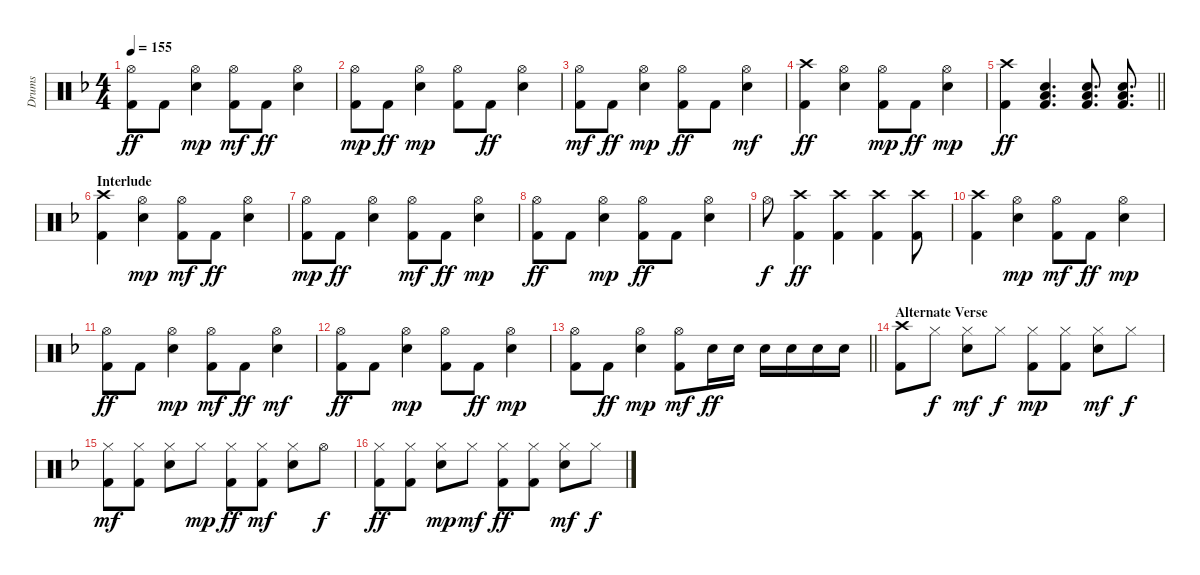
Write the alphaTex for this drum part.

\track ("Drums" "Drums") {instrument percussion}
\staff {score}
\articulation defaults
\ts (4 4)
\tempo 155
\clef neutral
\ks f
("Kick (hit) 2" "Hi-Hat (open)").8{dy ff} "Kick (hit) 2".8 ("Snare (hit) 2" "Hi-Hat (open)").4{dy mp} ("Kick (hit) 2" "Hi-Hat (open)").8{dy mf} "Kick (hit) 2".8{dy ff} ("Snare (hit) 2" "Hi-Hat (open)").4 |
("Kick (hit) 2" "Hi-Hat (open)").8{dy mp} "Kick (hit) 2".8{dy ff} ("Snare (hit) 2" "Hi-Hat (open)").4{dy mp} ("Kick (hit) 2" "Hi-Hat (open)").8 "Kick (hit) 2".8{dy ff} ("Snare (hit) 2" "Hi-Hat (open)").4 |
("Kick (hit) 2" "Hi-Hat (open)").8{dy mf} "Kick (hit) 2".8{dy ff} ("Snare (hit) 2" "Hi-Hat (open)").4{dy mp} ("Kick (hit) 2" "Hi-Hat (open)").8{dy ff} "Kick (hit) 2".8 ("Snare (hit) 2" "Hi-Hat (open)").4{dy mf} |
("Kick (hit) 2" "Crash high (hit)").4{dy ff} ("Snare (hit) 2" "Hi-Hat (open)").4 ("Kick (hit) 2" "Hi-Hat (open)").8{dy mp} "Kick (hit) 2".8{dy ff} ("Snare (hit) 2" "Hi-Hat (open)").4{dy mp} |
\barLineRight lightlight
("Kick (hit) 2" "Crash high (hit)").4{dy ff} ("Kick (hit) 2" "Snare (hit) 2" "Low Floor Tom (hit)").4{d} ("Kick (hit) 2" "Snare (hit) 2" "Low Floor Tom (hit)").8{d} ("Kick (hit) 2" "Snare (hit) 2" "Low Floor Tom (hit)").8{d} |
\section ("" "Interlude")
("Kick (hit) 2" "Crash high (hit)").4 ("Snare (hit) 2" "Hi-Hat (open)").4{dy mp} ("Kick (hit) 2" "Hi-Hat (open)").8{dy mf} "Kick (hit) 2".8{dy ff} ("Snare (hit) 2" "Hi-Hat (open)").4 |
("Kick (hit) 2" "Hi-Hat (open)").8{dy mp} "Kick (hit) 2".8{dy ff} ("Snare (hit) 2" "Hi-Hat (open)").4 ("Kick (hit) 2" "Hi-Hat (open)").8{dy mf} "Kick (hit) 2".8{dy ff} ("Snare (hit) 2" "Hi-Hat (open)").4{dy mp} |
("Kick (hit) 2" "Hi-Hat (open)").8{dy ff} "Kick (hit) 2".8 ("Snare (hit) 2" "Hi-Hat (open)").4{dy mp} ("Kick (hit) 2" "Hi-Hat (open)").8{dy ff} "Kick (hit) 2".8 ("Snare (hit) 2" "Hi-Hat (open)").4 |
"Hi-Hat (open)".8{dy f} ("Kick (hit) 2" "Crash high (hit)").4{dy ff} ("Kick (hit) 2" "Crash high (hit)").4 ("Kick (hit) 2" "Crash high (hit)").4 ("Kick (hit) 2" "Crash high (hit)").8 |
("Kick (hit) 2" "Crash high (hit)").4 ("Snare (hit) 2" "Hi-Hat (open)").4{dy mp} ("Kick (hit) 2" "Hi-Hat (open)").8{dy mf} "Kick (hit) 2".8{dy ff} ("Snare (hit) 2" "Hi-Hat (open)").4{dy mp} |
("Kick (hit) 2" "Hi-Hat (open)").8{dy ff} "Kick (hit) 2".8 ("Snare (hit) 2" "Hi-Hat (open)").4{dy mp} ("Kick (hit) 2" "Hi-Hat (open)").8{dy mf} "Kick (hit) 2".8{dy ff} ("Snare (hit) 2" "Hi-Hat (open)").4{dy mf} |
("Kick (hit) 2" "Hi-Hat (open)").8{dy ff} "Kick (hit) 2".8 ("Snare (hit) 2" "Hi-Hat (open)").4{dy mp} ("Kick (hit) 2" "Hi-Hat (open)").8 "Kick (hit) 2".8{dy ff} ("Snare (hit) 2" "Hi-Hat (open)").4{dy mp} |
\barLineRight lightlight
("Kick (hit) 2" "Hi-Hat (open)").8 "Kick (hit) 2".8{dy ff} ("Snare (hit) 2" "Hi-Hat (open)").4{dy mp} ("Kick (hit) 2" "Hi-Hat (open)").8{dy mf} "Snare (hit) 2".16{dy ff} "Snare (hit) 2".16 "Snare (hit) 2".16 "Snare (hit) 2".16 "Snare (hit) 2".16 "Snare (hit) 2".16 |
\section ("" "Alternate Verse")
("Kick (hit) 2" "Crash high (hit)").8 "Hi-Hat (closed)".8{dy f} ("Snare (hit) 2" "Hi-Hat (closed)").8{dy mf} "Hi-Hat (closed)".8{dy f} ("Kick (hit) 2" "Hi-Hat (closed)").8{dy mp} ("Kick (hit) 2" "Hi-Hat (closed)").8 ("Snare (hit) 2" "Hi-Hat (closed)").8{dy mf} "Hi-Hat (closed)".8{dy f} |
("Kick (hit) 2" "Hi-Hat (closed)").8{dy mf} ("Kick (hit) 2" "Hi-Hat (closed)").8 ("Snare (hit) 2" "Hi-Hat (closed)").8 "Hi-Hat (closed)".8{dy mp} ("Kick (hit) 2" "Hi-Hat (closed)").8{dy ff} ("Kick (hit) 2" "Hi-Hat (closed)").8{dy mf} ("Snare (hit) 2" "Hi-Hat (closed)").8 "Hi-Hat (open)".8{dy f} |
("Kick (hit) 2" "Hi-Hat (closed)").8{dy ff} ("Kick (hit) 2" "Hi-Hat (closed)").8 ("Snare (hit) 2" "Hi-Hat (closed)").8{dy mp} "Hi-Hat (closed)".8{dy mf} ("Kick (hit) 2" "Hi-Hat (closed)").8{dy ff} ("Kick (hit) 2" "Hi-Hat (closed)").8 ("Snare (hit) 2" "Hi-Hat (closed)").8{dy mf} "Hi-Hat (closed)".8{dy f}
